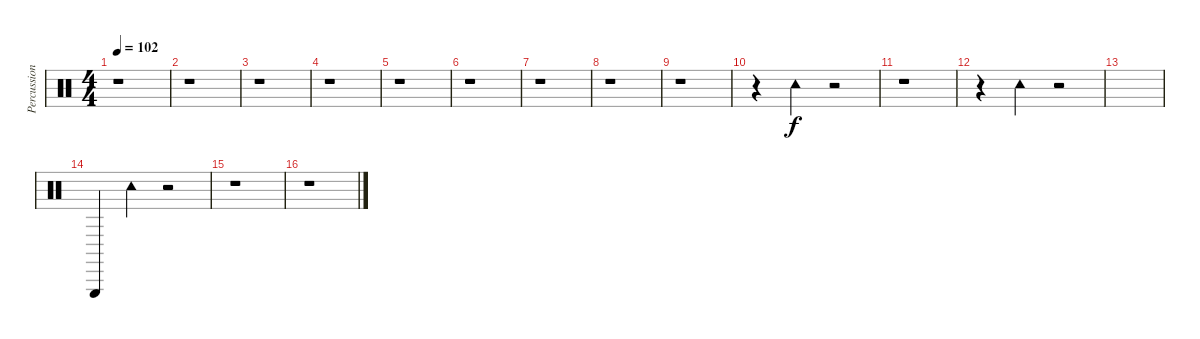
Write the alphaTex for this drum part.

\track ("Percussion" "Percussion") {instrument percussion}
\staff {score}
\articulation defaults
\ts (4 4)
\tempo 102
\clef neutral
\ks c
r.1{dy f} |
r.1 |
r.1 |
r.1 |
r.1 |
r.1 |
r.1 |
r.1 |
r.1 |
r.4 "Tambourine (hit)".4 r.2 |
r.1 |
r.4 "Tambourine (hit)".4 r.2 |
|
"Triangle (hit)".4 "Tambourine (hit)".4 r.2 |
r.1 |
r.1
